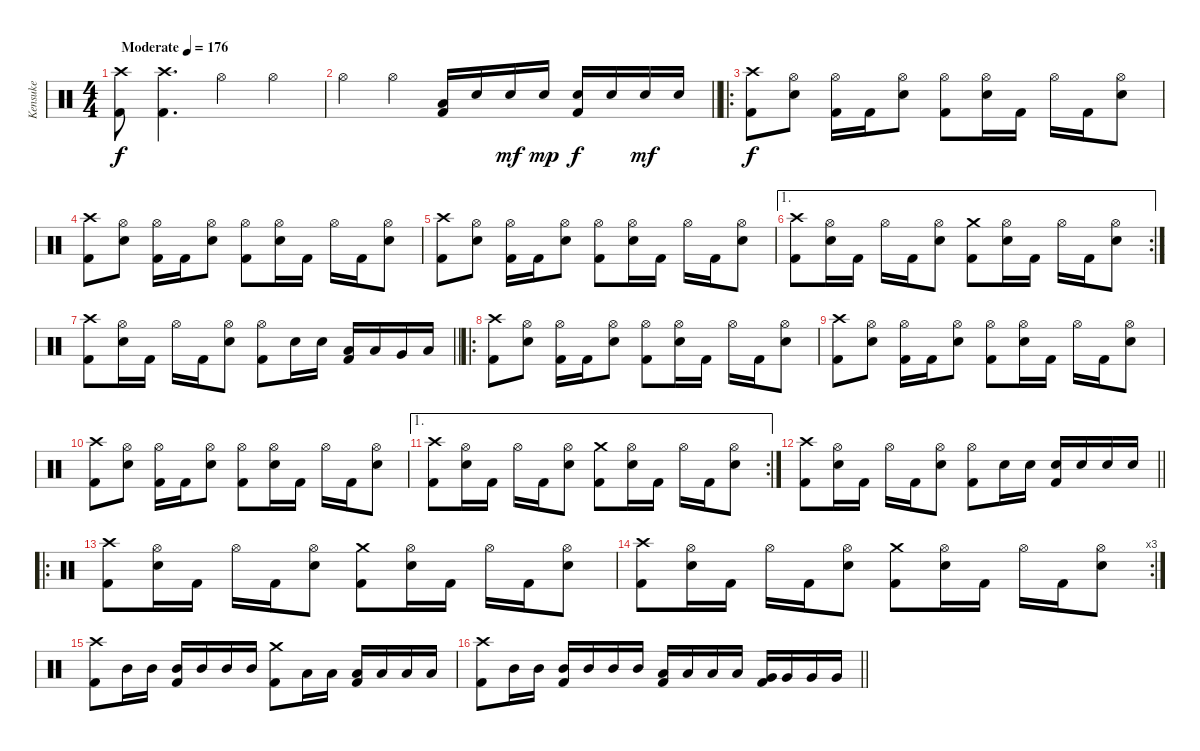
\track ("Kensuke" "Kensuke") {instrument percussion}
\staff {score}
\articulation defaults
\ts (4 4)
\tempo (176 "Moderate")
\clef neutral
\ks c
("Crash high (hit)" "Kick (hit) 2").8{dy f} ("Crash high (hit)" "Kick (hit) 2").4{d} "Hi-Hat (open)".4 "Hi-Hat (open)".4 |
\barLineRight lightlight "Hi-Hat (open)".4 "Hi-Hat (open)".4
("Low Tom (hit)" "Kick (hit) 2").16 "Electric Snare (hit)".16 "Electric Snare (hit)".16{dy mf} "Electric Snare (hit)".16{dy mp} ("Electric Snare (hit)" "Kick (hit) 2").16{dy f} "Electric Snare (hit)".16 "Electric Snare (hit)".16{dy mf} "Electric Snare (hit)".16 |
\ro
\section ("" "")
("Crash high (hit)" "Kick (hit) 2").8{dy f} ("Hi-Hat (open)" "Electric Snare (hit)").8 ("Hi-Hat (open)" "Kick (hit) 2").16 "Kick (hit) 2".16 ("Hi-Hat (open)" "Electric Snare (hit)").8 ("Hi-Hat (open)" "Kick (hit) 2").8 ("Hi-Hat (open)" "Electric Snare (hit)").16 "Kick (hit) 2".16 "Hi-Hat (open)".16 "Kick (hit) 2".16 ("Hi-Hat (open)" "Electric Snare (hit)").8 |
("Crash high (hit)" "Kick (hit) 2").8 ("Hi-Hat (open)" "Electric Snare (hit)").8 ("Hi-Hat (open)" "Kick (hit) 2").16 "Kick (hit) 2".16 ("Hi-Hat (open)" "Electric Snare (hit)").8 ("Hi-Hat (open)" "Kick (hit) 2").8 ("Hi-Hat (open)" "Electric Snare (hit)").16 "Kick (hit) 2".16 "Hi-Hat (open)".16 "Kick (hit) 2".16 ("Hi-Hat (open)" "Electric Snare (hit)").8 |
("Crash high (hit)" "Kick (hit) 2").8 ("Hi-Hat (open)" "Electric Snare (hit)").8 ("Hi-Hat (open)" "Kick (hit) 2").16 "Kick (hit) 2".16 ("Hi-Hat (open)" "Electric Snare (hit)").8 ("Hi-Hat (open)" "Kick (hit) 2").8 ("Hi-Hat (open)" "Electric Snare (hit)").16 "Kick (hit) 2".16 "Hi-Hat (open)".16 "Kick (hit) 2".16 ("Hi-Hat (open)" "Electric Snare (hit)").8 |
\ae 1
\rc 2
("Crash high (hit)" "Kick (hit) 2").8 ("Hi-Hat (open)" "Electric Snare (hit)").16 "Kick (hit) 2".16 "Hi-Hat (open)".16 "Kick (hit) 2".16 ("Hi-Hat (open)" "Electric Snare (hit)").8 ("Crash medium (hit)" "Kick (hit) 2").8 ("Hi-Hat (open)" "Electric Snare (hit)").16 "Kick (hit) 2".16 "Hi-Hat (open)".16 "Kick (hit) 2".16 ("Hi-Hat (open)" "Electric Snare (hit)").8 |
\barLineRight lightlight
("Crash high (hit)" "Kick (hit) 2").8 ("Hi-Hat (open)" "Electric Snare (hit)").16 "Kick (hit) 2".16 "Hi-Hat (open)".16 "Kick (hit) 2".16 ("Hi-Hat (open)" "Electric Snare (hit)").8 ("Hi-Hat (open)" "Kick (hit) 2").8 "Electric Snare (hit)".16 "Electric Snare (hit)".16 ("Low Tom (hit)" "Kick (hit) 2").16 "Low Tom (hit)".16 "Very Low Tom (hit)".16 "Low Floor Tom (hit)".16 |
\ro
\section ("" "")
("Crash high (hit)" "Kick (hit) 2").8 ("Hi-Hat (open)" "Electric Snare (hit)").8 ("Hi-Hat (open)" "Kick (hit) 2").16 "Kick (hit) 2".16 ("Hi-Hat (open)" "Electric Snare (hit)").8 ("Hi-Hat (open)" "Kick (hit) 2").8 ("Hi-Hat (open)" "Electric Snare (hit)").16 "Kick (hit) 2".16 "Hi-Hat (open)".16 "Kick (hit) 2".16 ("Hi-Hat (open)" "Electric Snare (hit)").8 |
("Crash high (hit)" "Kick (hit) 2").8 ("Hi-Hat (open)" "Electric Snare (hit)").8 ("Hi-Hat (open)" "Kick (hit) 2").16 "Kick (hit) 2".16 ("Hi-Hat (open)" "Electric Snare (hit)").8 ("Hi-Hat (open)" "Kick (hit) 2").8 ("Hi-Hat (open)" "Electric Snare (hit)").16 "Kick (hit) 2".16 "Hi-Hat (open)".16 "Kick (hit) 2".16 ("Hi-Hat (open)" "Electric Snare (hit)").8 |
("Crash high (hit)" "Kick (hit) 2").8 ("Hi-Hat (open)" "Electric Snare (hit)").8 ("Hi-Hat (open)" "Kick (hit) 2").16 "Kick (hit) 2".16 ("Hi-Hat (open)" "Electric Snare (hit)").8 ("Hi-Hat (open)" "Kick (hit) 2").8 ("Hi-Hat (open)" "Electric Snare (hit)").16 "Kick (hit) 2".16 "Hi-Hat (open)".16 "Kick (hit) 2".16 ("Hi-Hat (open)" "Electric Snare (hit)").8 |
\ae 1
\rc 2
("Crash high (hit)" "Kick (hit) 2").8 ("Hi-Hat (open)" "Electric Snare (hit)").16 "Kick (hit) 2".16 "Hi-Hat (open)".16 "Kick (hit) 2".16 ("Hi-Hat (open)" "Electric Snare (hit)").8 ("Crash medium (hit)" "Kick (hit) 2").8 ("Hi-Hat (open)" "Electric Snare (hit)").16 "Kick (hit) 2".16 "Hi-Hat (open)".16 "Kick (hit) 2".16 ("Hi-Hat (open)" "Electric Snare (hit)").8 |
\barLineRight lightlight
("Crash high (hit)" "Kick (hit) 2").8 ("Hi-Hat (open)" "Electric Snare (hit)").16 "Kick (hit) 2".16 "Hi-Hat (open)".16 "Kick (hit) 2".16 ("Hi-Hat (open)" "Electric Snare (hit)").8 ("Hi-Hat (open)" "Kick (hit) 2").8 "Electric Snare (hit)".16 "Electric Snare (hit)".16 ("Electric Snare (hit)" "Kick (hit) 2").16 "Electric Snare (hit)".16 "Electric Snare (hit)".16 "Electric Snare (hit)".16 |
\ro
\section ("" "")
("Crash high (hit)" "Kick (hit) 2").8 ("Hi-Hat (open)" "Electric Snare (hit)").16 "Kick (hit) 2".16 "Hi-Hat (open)".16 "Kick (hit) 2".16 ("Hi-Hat (open)" "Electric Snare (hit)").8 ("Crash medium (hit)" "Kick (hit) 2").8 ("Hi-Hat (open)" "Electric Snare (hit)").16 "Kick (hit) 2".16 "Hi-Hat (open)".16 "Kick (hit) 2".16 ("Hi-Hat (open)" "Electric Snare (hit)").8 |
\rc 3
("Crash high (hit)" "Kick (hit) 2").8 ("Hi-Hat (open)" "Electric Snare (hit)").16 "Kick (hit) 2".16 "Hi-Hat (open)".16 "Kick (hit) 2".16 ("Hi-Hat (open)" "Electric Snare (hit)").8 ("Crash medium (hit)" "Kick (hit) 2").8 ("Hi-Hat (open)" "Electric Snare (hit)").16 "Kick (hit) 2".16 "Hi-Hat (open)".16 "Kick (hit) 2".16 ("Hi-Hat (open)" "Electric Snare (hit)").8 |
("Crash high (hit)" "Kick (hit) 2").8 "Mid Tom (hit)".16 "Mid Tom (hit)".16 ("Mid Tom (hit)" "Kick (hit) 2").16 "Mid Tom (hit)".16 "Mid Tom (hit)".16 "Mid Tom (hit)".16 ("Crash medium (hit)" "Kick (hit) 2").8 "Low Tom (hit)".16 "Low Tom (hit)".16 ("Low Tom (hit)" "Kick (hit) 2").16 "Low Tom (hit)".16 "Low Tom (hit)".16 "Low Tom (hit)".16 |
\barLineRight lightlight
("Crash high (hit)" "Kick (hit) 2").8 "Mid Tom (hit)".16 "Mid Tom (hit)".16 ("Mid Tom (hit)" "Kick (hit) 2").16 "Mid Tom (hit)".16 "Mid Tom (hit)".16 "Mid Tom (hit)".16 ("Low Tom (hit)" "Kick (hit) 2").16 "Low Tom (hit)".16 "Low Tom (hit)".16 "Low Tom (hit)".16 ("Very Low Tom (hit)" "Kick (hit) 2").16 "Very Low Tom (hit)".16 "Very Low Tom (hit)".16 "Very Low Tom (hit)".16
